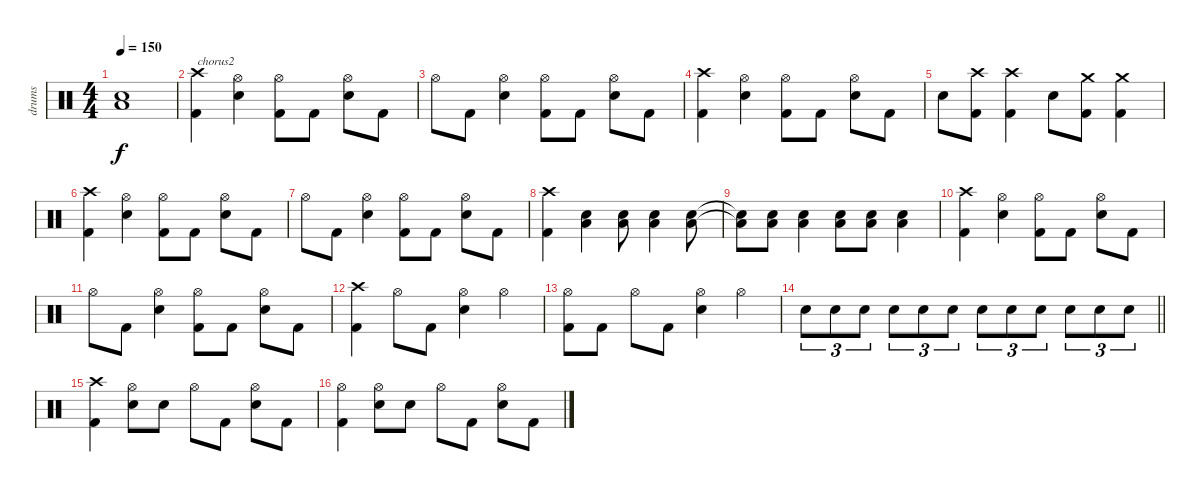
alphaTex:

\track ("drums" "drums") {instrument percussion}
\staff {score}
\articulation defaults
\ts (4 4)
\tempo 150
\clef neutral
\ks c
("Low Floor Tom (hit)" "Electric Snare (hit)").1{dy f} |
("Crash high (hit)" "Kick (hit) 2").4{txt "chorus2"} ("Hi-Hat (open)" "Electric Snare (hit)").4 ("Hi-Hat (open)" "Kick (hit) 2").8 "Kick (hit) 2".8 ("Hi-Hat (open)" "Electric Snare (hit)").8 "Kick (hit) 2".8 |
"Hi-Hat (open)".8 "Kick (hit) 2".8 ("Hi-Hat (open)" "Electric Snare (hit)").4 ("Hi-Hat (open)" "Kick (hit) 2").8 "Kick (hit) 2".8 ("Hi-Hat (open)" "Electric Snare (hit)").8 "Kick (hit) 2".8 |
("Crash high (hit)" "Kick (hit) 2").4 ("Hi-Hat (open)" "Electric Snare (hit)").4 ("Hi-Hat (open)" "Kick (hit) 2").8 "Kick (hit) 2".8 ("Hi-Hat (open)" "Electric Snare (hit)").8 "Kick (hit) 2".8 |
"Electric Snare (hit)".8 ("Crash high (hit)" "Kick (hit) 2").8 ("Crash high (hit)" "Kick (hit) 2").4 "Electric Snare (hit)".8 ("Crash medium (hit)" "Kick (hit) 2").8 ("Crash medium (hit)" "Kick (hit) 2").4 |
("Crash high (hit)" "Kick (hit) 2").4 ("Hi-Hat (open)" "Electric Snare (hit)").4 ("Hi-Hat (open)" "Kick (hit) 2").8 "Kick (hit) 2".8 ("Hi-Hat (open)" "Electric Snare (hit)").8 "Kick (hit) 2".8 |
"Hi-Hat (open)".8 "Kick (hit) 2".8 ("Hi-Hat (open)" "Electric Snare (hit)").4 ("Hi-Hat (open)" "Kick (hit) 2").8 "Kick (hit) 2".8 ("Hi-Hat (open)" "Electric Snare (hit)").8 "Kick (hit) 2".8 |
("Crash high (hit)" "Kick (hit) 2").4 ("Low Floor Tom (hit)" "Electric Snare (hit)").4 ("Low Floor Tom (hit)" "Electric Snare (hit)").8 ("Low Floor Tom (hit)" "Electric Snare (hit)").4 ("Low Floor Tom (hit)" "Electric Snare (hit)").8 |
("Low Floor Tom (hit)"{t} "Electric Snare (hit)"{t}).8 ("Low Floor Tom (hit)" "Electric Snare (hit)").8 ("Low Floor Tom (hit)" "Electric Snare (hit)").4 ("Low Floor Tom (hit)" "Electric Snare (hit)").8 ("Low Floor Tom (hit)" "Electric Snare (hit)").8 ("Low Floor Tom (hit)" "Electric Snare (hit)").4 |
("Crash high (hit)" "Kick (hit) 2").4 ("Hi-Hat (open)" "Electric Snare (hit)").4 ("Hi-Hat (open)" "Kick (hit) 2").8 "Kick (hit) 2".8 ("Hi-Hat (open)" "Electric Snare (hit)").8 "Kick (hit) 2".8 |
"Hi-Hat (open)".8 "Kick (hit) 2".8 ("Hi-Hat (open)" "Electric Snare (hit)").4 ("Hi-Hat (open)" "Kick (hit) 2").8 "Kick (hit) 2".8 ("Hi-Hat (open)" "Electric Snare (hit)").8 "Kick (hit) 2".8 |
("Crash high (hit)" "Kick (hit) 2").4 "Hi-Hat (open)".8 "Kick (hit) 2".8 ("Hi-Hat (open)" "Electric Snare (hit)").4 "Hi-Hat (open)".4 |
("Hi-Hat (open)" "Kick (hit) 2").8 "Kick (hit) 2".8 "Hi-Hat (open)".8 "Kick (hit) 2".8 ("Hi-Hat (open)" "Electric Snare (hit)").4 "Hi-Hat (open)".4 |
\barLineRight lightlight "Electric Snare (hit)".8{tu (3 2)} "Electric Snare (hit)".8{tu (3 2)} "Electric Snare (hit)".8{tu (3 2)} "Electric Snare (hit)".8{tu (3 2)} "Electric Snare (hit)".8{tu (3 2)} "Electric Snare (hit)".8{tu (3 2)} "Electric Snare (hit)".8{tu (3 2)} "Electric Snare (hit)".8{tu (3 2)} "Electric Snare (hit)".8{tu (3 2)} "Electric Snare (hit)".8{tu (3 2)} "Electric Snare (hit)".8{tu (3 2)} "Electric Snare (hit)".8{tu (3 2)}
|
("Crash high (hit)" "Kick (hit) 2").4 ("Hi-Hat (open)" "Electric Snare (hit)").8 "Electric Snare (hit)".8 "Hi-Hat (open)".8 "Kick (hit) 2".8 ("Hi-Hat (open)" "Electric Snare (hit)").8 "Kick (hit) 2".8 |
("Hi-Hat (open)" "Kick (hit) 2").4 ("Hi-Hat (open)" "Electric Snare (hit)").8 "Electric Snare (hit)".8 "Hi-Hat (open)".8 "Kick (hit) 2".8 ("Hi-Hat (open)" "Electric Snare (hit)").8 "Kick (hit) 2".8
